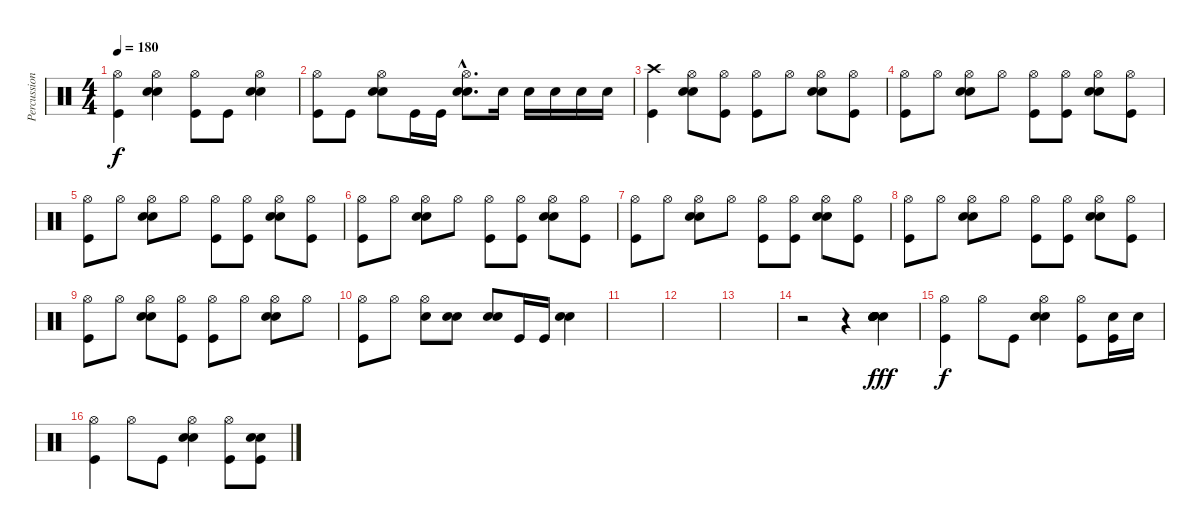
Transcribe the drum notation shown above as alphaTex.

\track ("Percussion" "Percussion") {instrument percussion}
\staff {score}
\articulation defaults
\ts (4 4)
\tempo 180
\clef neutral
\ks c
("Hi-Hat (open)" "Kick (hit)").4{dy f} ("Hi-Hat (open)" "Snare (hit) 2" "Electric Snare (hit)").4 ("Hi-Hat (open)" "Kick (hit)").8 "Kick (hit)".8 ("Hi-Hat (open)" "Snare (hit) 2" "Electric Snare (hit)").4 |
("Hi-Hat (open)" "Kick (hit)").8 "Kick (hit)".8 ("Hi-Hat (open)" "Snare (hit) 2" "Electric Snare (hit)").8 "Kick (hit)".16 "Kick (hit)".16 ("Hi-Hat (open)"{hac} "Snare (hit) 2"{hac} "Electric Snare (hit)"{hac}).8{d} "Snare (hit) 2".16 "Snare (hit) 2".16 "Snare (hit) 2".16 "Snare (hit) 2".16 "Snare (hit) 2".16 |
("Crash high (hit)" "Kick (hit)").4 ("Hi-Hat (open)" "Snare (hit) 2" "Electric Snare (hit)").8 ("Hi-Hat (open)" "Kick (hit)").8 ("Hi-Hat (open)" "Kick (hit)").8 "Hi-Hat (open)".8 ("Hi-Hat (open)" "Snare (hit) 2" "Electric Snare (hit)").8 ("Hi-Hat (open)" "Kick (hit)").8 |
("Hi-Hat (open)" "Kick (hit)").8 "Hi-Hat (open)".8 ("Hi-Hat (open)" "Snare (hit) 2" "Electric Snare (hit)").8 "Hi-Hat (open)".8 ("Hi-Hat (open)" "Kick (hit)").8 ("Hi-Hat (open)" "Kick (hit)").8 ("Hi-Hat (open)" "Snare (hit) 2" "Electric Snare (hit)").8 ("Hi-Hat (open)" "Kick (hit)").8 |
("Hi-Hat (open)" "Kick (hit)").8 "Hi-Hat (open)".8 ("Hi-Hat (open)" "Snare (hit) 2" "Electric Snare (hit)").8 "Hi-Hat (open)".8 ("Hi-Hat (open)" "Kick (hit)").8 ("Hi-Hat (open)" "Kick (hit)").8 ("Hi-Hat (open)" "Snare (hit) 2" "Electric Snare (hit)").8 ("Hi-Hat (open)" "Kick (hit)").8 |
("Hi-Hat (open)" "Kick (hit)").8 "Hi-Hat (open)".8 ("Hi-Hat (open)" "Snare (hit) 2" "Electric Snare (hit)").8 "Hi-Hat (open)".8 ("Hi-Hat (open)" "Kick (hit)").8 ("Hi-Hat (open)" "Kick (hit)").8 ("Hi-Hat (open)" "Snare (hit) 2" "Electric Snare (hit)").8 ("Hi-Hat (open)" "Kick (hit)").8 |
("Hi-Hat (open)" "Kick (hit)").8 "Hi-Hat (open)".8 ("Hi-Hat (open)" "Snare (hit) 2" "Electric Snare (hit)").8 "Hi-Hat (open)".8 ("Hi-Hat (open)" "Kick (hit)").8 ("Hi-Hat (open)" "Kick (hit)").8 ("Hi-Hat (open)" "Snare (hit) 2" "Electric Snare (hit)").8 ("Hi-Hat (open)" "Kick (hit)").8 |
("Hi-Hat (open)" "Kick (hit)").8 "Hi-Hat (open)".8 ("Hi-Hat (open)" "Snare (hit) 2" "Electric Snare (hit)").8 "Hi-Hat (open)".8 ("Hi-Hat (open)" "Kick (hit)").8 ("Hi-Hat (open)" "Kick (hit)").8 ("Hi-Hat (open)" "Snare (hit) 2" "Electric Snare (hit)").8 ("Hi-Hat (open)" "Kick (hit)").8 |
("Hi-Hat (open)" "Kick (hit)").8 "Hi-Hat (open)".8 ("Hi-Hat (open)" "Snare (hit) 2" "Electric Snare (hit)").8 ("Hi-Hat (open)" "Kick (hit)").8 ("Hi-Hat (open)" "Kick (hit)").8 "Hi-Hat (open)".8 ("Hi-Hat (open)" "Snare (hit) 2" "Electric Snare (hit)").8 "Hi-Hat (open)".8 |
("Hi-Hat (open)" "Kick (hit)").8 "Hi-Hat (open)".8 ("Hi-Hat (open)" "Snare (hit) 2").8 ("Snare (hit) 2" "Electric Snare (hit)").8 ("Snare (hit) 2" "Electric Snare (hit)").8 "Kick (hit)".16 "Kick (hit)".16 ("Snare (hit) 2" "Electric Snare (hit)").4 |
|
|
|
r.2 r.4 ("Snare (hit) 2" "Snare (hit) 2" "Snare (hit) 2" "Electric Snare (hit)" "Electric Snare (hit)" "Electric Snare (hit)").4{dy fff} |
("Hi-Hat (open)" "Kick (hit)").4{dy f} "Hi-Hat (open)".8 "Kick (hit)".8 ("Hi-Hat (open)" "Snare (hit) 2" "Electric Snare (hit)").4 ("Hi-Hat (open)" "Kick (hit)").8 ("Snare (hit) 2" "Kick (hit)").16 "Snare (hit) 2".16 |
("Hi-Hat (open)" "Kick (hit)").4 "Hi-Hat (open)".8 "Kick (hit)".8 ("Hi-Hat (open)" "Snare (hit) 2" "Electric Snare (hit)").4 ("Hi-Hat (open)" "Kick (hit)").8 ("Snare (hit) 2" "Electric Snare (hit)" "Kick (hit)").8
